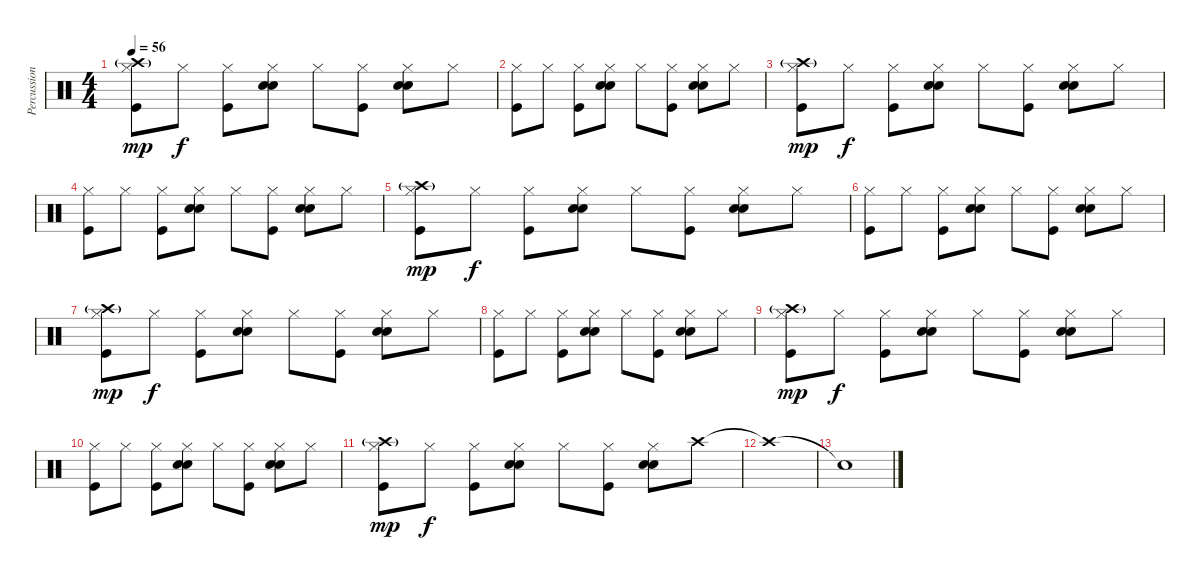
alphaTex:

\track ("Percussion" "Percussion") {instrument percussion}
\staff {score}
\articulation defaults
\ts (4 4)
\tempo 56
\clef neutral
\ks c
("Hi-Hat (closed)" "Crash high (hit)"{g} "Kick (hit)").8{dy mp} "Hi-Hat (closed)".8{dy f} ("Hi-Hat (closed)" "Kick (hit)").8 ("Hi-Hat (closed)" "Snare (hit) 2" "Snare (hit) 2").8 "Hi-Hat (closed)".8 ("Hi-Hat (closed)" "Kick (hit)").8 ("Hi-Hat (closed)" "Snare (hit) 2" "Snare (hit) 2").8 "Hi-Hat (closed)".8 |
("Hi-Hat (closed)" "Kick (hit)").8 "Hi-Hat (closed)".8 ("Hi-Hat (closed)" "Kick (hit)").8 ("Hi-Hat (closed)" "Snare (hit) 2" "Snare (hit) 2").8 "Hi-Hat (closed)".8 ("Hi-Hat (closed)" "Kick (hit)").8 ("Hi-Hat (closed)" "Snare (hit) 2" "Snare (hit) 2").8 "Hi-Hat (closed)".8 |
("Hi-Hat (closed)" "Crash high (hit)"{g} "Kick (hit)").8{dy mp} "Hi-Hat (closed)".8{dy f} ("Hi-Hat (closed)" "Kick (hit)").8 ("Hi-Hat (closed)" "Snare (hit) 2" "Snare (hit) 2").8 "Hi-Hat (closed)".8 ("Hi-Hat (closed)" "Kick (hit)").8 ("Hi-Hat (closed)" "Snare (hit) 2" "Snare (hit) 2").8 "Hi-Hat (closed)".8 |
("Hi-Hat (closed)" "Kick (hit)").8 "Hi-Hat (closed)".8 ("Hi-Hat (closed)" "Kick (hit)").8 ("Hi-Hat (closed)" "Snare (hit) 2" "Snare (hit) 2").8 "Hi-Hat (closed)".8 ("Hi-Hat (closed)" "Kick (hit)").8 ("Hi-Hat (closed)" "Snare (hit) 2" "Snare (hit) 2").8 "Hi-Hat (closed)".8 |
("Hi-Hat (closed)" "Crash high (hit)"{g} "Kick (hit)").8{dy mp} "Hi-Hat (closed)".8{dy f} ("Hi-Hat (closed)" "Kick (hit)").8 ("Hi-Hat (closed)" "Snare (hit) 2" "Snare (hit) 2").8 "Hi-Hat (closed)".8 ("Hi-Hat (closed)" "Kick (hit)").8 ("Hi-Hat (closed)" "Snare (hit) 2" "Snare (hit) 2").8 "Hi-Hat (closed)".8 |
("Hi-Hat (closed)" "Kick (hit)").8 "Hi-Hat (closed)".8 ("Hi-Hat (closed)" "Kick (hit)").8 ("Hi-Hat (closed)" "Snare (hit) 2" "Snare (hit) 2").8 "Hi-Hat (closed)".8 ("Hi-Hat (closed)" "Kick (hit)").8 ("Hi-Hat (closed)" "Snare (hit) 2" "Snare (hit) 2").8 "Hi-Hat (closed)".8 |
("Hi-Hat (closed)" "Crash high (hit)"{g} "Kick (hit)").8{dy mp} "Hi-Hat (closed)".8{dy f} ("Hi-Hat (closed)" "Kick (hit)").8 ("Hi-Hat (closed)" "Snare (hit) 2" "Snare (hit) 2").8 "Hi-Hat (closed)".8 ("Hi-Hat (closed)" "Kick (hit)").8 ("Hi-Hat (closed)" "Snare (hit) 2" "Snare (hit) 2").8 "Hi-Hat (closed)".8 |
("Hi-Hat (closed)" "Kick (hit)").8 "Hi-Hat (closed)".8 ("Hi-Hat (closed)" "Kick (hit)").8 ("Hi-Hat (closed)" "Snare (hit) 2" "Snare (hit) 2").8 "Hi-Hat (closed)".8 ("Hi-Hat (closed)" "Kick (hit)").8 ("Hi-Hat (closed)" "Snare (hit) 2" "Snare (hit) 2").8 "Hi-Hat (closed)".8 |
("Hi-Hat (closed)" "Crash high (hit)"{g} "Kick (hit)").8{dy mp} "Hi-Hat (closed)".8{dy f} ("Hi-Hat (closed)" "Kick (hit)").8 ("Hi-Hat (closed)" "Snare (hit) 2" "Snare (hit) 2").8 "Hi-Hat (closed)".8 ("Hi-Hat (closed)" "Kick (hit)").8 ("Hi-Hat (closed)" "Snare (hit) 2" "Snare (hit) 2").8 "Hi-Hat (closed)".8 |
("Hi-Hat (closed)" "Kick (hit)").8 "Hi-Hat (closed)".8 ("Hi-Hat (closed)" "Kick (hit)").8 ("Hi-Hat (closed)" "Snare (hit) 2" "Snare (hit) 2").8 "Hi-Hat (closed)".8 ("Hi-Hat (closed)" "Kick (hit)").8 ("Hi-Hat (closed)" "Snare (hit) 2" "Snare (hit) 2").8 "Hi-Hat (closed)".8 |
("Hi-Hat (closed)" "Crash high (hit)"{g} "Kick (hit)").8{dy mp} "Hi-Hat (closed)".8{dy f} ("Hi-Hat (closed)" "Kick (hit)").8 ("Hi-Hat (closed)" "Snare (hit) 2" "Snare (hit) 2").8 "Hi-Hat (closed)".8 ("Hi-Hat (closed)" "Kick (hit)").8 ("Hi-Hat (closed)" "Snare (hit) 2" "Snare (hit) 2").8 "Crash high (hit)".8 |
"Crash high (hit)"{t}.1 |
"Snare (hit)"{t}.1
